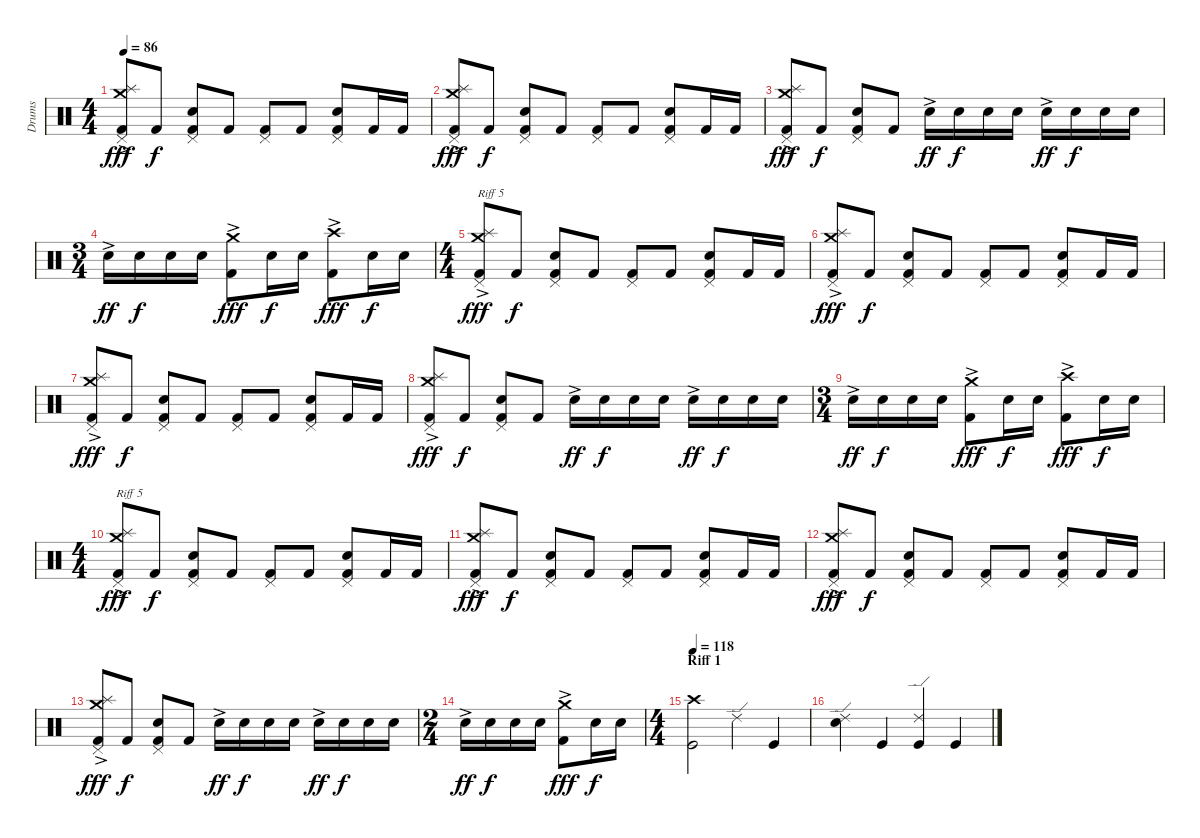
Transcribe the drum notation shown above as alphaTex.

\track ("Drums" "Drums") {instrument percussion}
\staff {score}
\articulation defaults
\ts (4 4)
\tempo 86
\clef neutral
\ks c
("Pedal Hi-Hat (hit)" "Crash medium (hit)"{ac} "Splash (hit)" "Kick (hit) 2").8{dy fff} "Kick (hit) 2".8{dy f} ("Pedal Hi-Hat (hit)" "Electric Snare (hit)" "Kick (hit) 2").8 "Kick (hit) 2".8 ("Pedal Hi-Hat (hit)" "Kick (hit) 2").8 "Kick (hit) 2".8 ("Pedal Hi-Hat (hit)" "Electric Snare (hit)" "Kick (hit) 2").8 "Kick (hit) 2".16 "Kick (hit) 2".16 |
("Pedal Hi-Hat (hit)" "Crash medium (hit)"{ac} "Splash (hit)" "Kick (hit) 2").8{dy fff} "Kick (hit) 2".8{dy f} ("Pedal Hi-Hat (hit)" "Electric Snare (hit)" "Kick (hit) 2").8 "Kick (hit) 2".8 ("Pedal Hi-Hat (hit)" "Kick (hit) 2").8 "Kick (hit) 2".8 ("Pedal Hi-Hat (hit)" "Electric Snare (hit)" "Kick (hit) 2").8 "Kick (hit) 2".16 "Kick (hit) 2".16 |
("Pedal Hi-Hat (hit)" "Crash medium (hit)"{ac} "Splash (hit)" "Kick (hit) 2").8{dy fff} "Kick (hit) 2".8{dy f} ("Pedal Hi-Hat (hit)" "Electric Snare (hit)" "Kick (hit) 2").8 "Kick (hit) 2".8 "Electric Snare (hit)"{ac}.16{dy ff} "Electric Snare (hit)".16{dy f} "Electric Snare (hit)".16 "Electric Snare (hit)".16 "Electric Snare (hit)"{ac}.16{dy ff} "Electric Snare (hit)".16{dy f} "Electric Snare (hit)".16 "Electric Snare (hit)".16 |
\ts (3 4)
"Electric Snare (hit)"{ac}.16{dy ff} "Electric Snare (hit)".16{dy f} "Electric Snare (hit)".16 "Electric Snare (hit)".16 ("Crash medium (hit)"{ac} "Kick (hit) 2").8{dy fff} "Electric Snare (hit)".16{dy f} "Electric Snare (hit)".16 ("Crash high (hit)"{ac} "Kick (hit) 2").8{dy fff} "Electric Snare (hit)".16{dy f} "Electric Snare (hit)".16 |
\ts (4 4)
("Pedal Hi-Hat (hit)" "Crash medium (hit)"{ac} "Splash (hit)" "Kick (hit) 2").8{txt "Riff 5" dy fff} "Kick (hit) 2".8{dy f} ("Pedal Hi-Hat (hit)" "Electric Snare (hit)" "Kick (hit) 2").8 "Kick (hit) 2".8 ("Pedal Hi-Hat (hit)" "Kick (hit) 2").8 "Kick (hit) 2".8 ("Pedal Hi-Hat (hit)" "Electric Snare (hit)" "Kick (hit) 2").8 "Kick (hit) 2".16 "Kick (hit) 2".16 |
("Pedal Hi-Hat (hit)" "Crash medium (hit)"{ac} "Splash (hit)" "Kick (hit) 2").8{dy fff} "Kick (hit) 2".8{dy f} ("Pedal Hi-Hat (hit)" "Electric Snare (hit)" "Kick (hit) 2").8 "Kick (hit) 2".8 ("Pedal Hi-Hat (hit)" "Kick (hit) 2").8 "Kick (hit) 2".8 ("Pedal Hi-Hat (hit)" "Electric Snare (hit)" "Kick (hit) 2").8 "Kick (hit) 2".16 "Kick (hit) 2".16 |
("Pedal Hi-Hat (hit)" "Crash medium (hit)"{ac} "Splash (hit)" "Kick (hit) 2").8{dy fff} "Kick (hit) 2".8{dy f} ("Pedal Hi-Hat (hit)" "Electric Snare (hit)" "Kick (hit) 2").8 "Kick (hit) 2".8 ("Pedal Hi-Hat (hit)" "Kick (hit) 2").8 "Kick (hit) 2".8 ("Pedal Hi-Hat (hit)" "Electric Snare (hit)" "Kick (hit) 2").8 "Kick (hit) 2".16 "Kick (hit) 2".16 |
("Pedal Hi-Hat (hit)" "Crash medium (hit)"{ac} "Splash (hit)" "Kick (hit) 2").8{dy fff} "Kick (hit) 2".8{dy f} ("Pedal Hi-Hat (hit)" "Electric Snare (hit)" "Kick (hit) 2").8 "Kick (hit) 2".8 "Electric Snare (hit)"{ac}.16{dy ff} "Electric Snare (hit)".16{dy f} "Electric Snare (hit)".16 "Electric Snare (hit)".16 "Electric Snare (hit)"{ac}.16{dy ff} "Electric Snare (hit)".16{dy f} "Electric Snare (hit)".16 "Electric Snare (hit)".16 |
\ts (3 4)
"Electric Snare (hit)"{ac}.16{dy ff} "Electric Snare (hit)".16{dy f} "Electric Snare (hit)".16 "Electric Snare (hit)".16 ("Crash medium (hit)"{ac} "Kick (hit) 2").8{dy fff} "Electric Snare (hit)".16{dy f} "Electric Snare (hit)".16 ("Crash high (hit)"{ac} "Kick (hit) 2").8{dy fff} "Electric Snare (hit)".16{dy f} "Electric Snare (hit)".16 |
\ts (4 4)
("Pedal Hi-Hat (hit)" "Crash medium (hit)"{ac} "Splash (hit)" "Kick (hit) 2").8{txt "Riff 5" dy fff} "Kick (hit) 2".8{dy f} ("Pedal Hi-Hat (hit)" "Electric Snare (hit)" "Kick (hit) 2").8 "Kick (hit) 2".8 ("Pedal Hi-Hat (hit)" "Kick (hit) 2").8 "Kick (hit) 2".8 ("Pedal Hi-Hat (hit)" "Electric Snare (hit)" "Kick (hit) 2").8 "Kick (hit) 2".16 "Kick (hit) 2".16 |
("Pedal Hi-Hat (hit)" "Crash medium (hit)"{ac} "Splash (hit)" "Kick (hit) 2").8{dy fff} "Kick (hit) 2".8{dy f} ("Pedal Hi-Hat (hit)" "Electric Snare (hit)" "Kick (hit) 2").8 "Kick (hit) 2".8 ("Pedal Hi-Hat (hit)" "Kick (hit) 2").8 "Kick (hit) 2".8 ("Pedal Hi-Hat (hit)" "Electric Snare (hit)" "Kick (hit) 2").8 "Kick (hit) 2".16 "Kick (hit) 2".16 |
("Pedal Hi-Hat (hit)" "Crash medium (hit)"{ac} "Splash (hit)" "Kick (hit) 2").8{dy fff} "Kick (hit) 2".8{dy f} ("Pedal Hi-Hat (hit)" "Electric Snare (hit)" "Kick (hit) 2").8 "Kick (hit) 2".8 ("Pedal Hi-Hat (hit)" "Kick (hit) 2").8 "Kick (hit) 2".8 ("Pedal Hi-Hat (hit)" "Electric Snare (hit)" "Kick (hit) 2").8 "Kick (hit) 2".16 "Kick (hit) 2".16 |
("Pedal Hi-Hat (hit)" "Crash medium (hit)"{ac} "Splash (hit)" "Kick (hit) 2").8{dy fff} "Kick (hit) 2".8{dy f} ("Pedal Hi-Hat (hit)" "Electric Snare (hit)" "Kick (hit) 2").8 "Kick (hit) 2".8 "Electric Snare (hit)"{ac}.16{dy ff} "Electric Snare (hit)".16{dy f} "Electric Snare (hit)".16 "Electric Snare (hit)".16 "Electric Snare (hit)"{ac}.16{dy ff} "Electric Snare (hit)".16{dy f} "Electric Snare (hit)".16 "Electric Snare (hit)".16 |
\ts (2 4)
"Electric Snare (hit)"{ac}.16{dy ff} "Electric Snare (hit)".16{dy f} "Electric Snare (hit)".16 "Electric Snare (hit)".16 ("Crash medium (hit)"{ac} "Kick (hit) 2").8{dy fff} "Electric Snare (hit)".16{dy f} "Electric Snare (hit)".16 |
\ts (4 4)
\section ("" "Riff 1")
\tempo 125
\tempo 118
("Crash high (hit)" "Kick (hit)").2 "Ride (edge) 2".4 "Kick (hit)".4 |
("Ride (edge) 2" "Snare (hit) 2").4 "Kick (hit)".4 ("Ride (edge) 2" "Kick (hit)").4 "Kick (hit)".4
